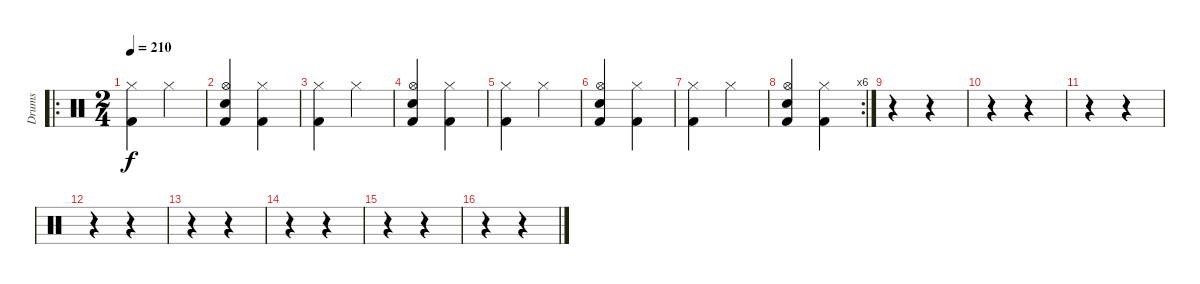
\track ("Drums" "Drums") {instrument percussion}
\staff {score}
\articulation defaults
\ro
\ts (2 4)
\tempo 210
\clef neutral
\ks c
("Hi-Hat (closed)" "Kick (hit) 2").4{dy f} "Hi-Hat (closed)".4 |
("Hi-Hat (open)" "Electric Snare (hit)" "Kick (hit) 2").4 ("Hi-Hat (closed)" "Kick (hit) 2").4 |
("Hi-Hat (closed)" "Kick (hit) 2").4 "Hi-Hat (closed)".4 |
("Hi-Hat (open)" "Electric Snare (hit)" "Kick (hit) 2").4 ("Hi-Hat (closed)" "Kick (hit) 2").4 |
("Hi-Hat (closed)" "Kick (hit) 2").4 "Hi-Hat (closed)".4 |
("Hi-Hat (open)" "Electric Snare (hit)" "Kick (hit) 2").4 ("Hi-Hat (closed)" "Kick (hit) 2").4 |
("Hi-Hat (closed)" "Kick (hit) 2").4 "Hi-Hat (closed)".4 |
\rc 6
("Hi-Hat (open)" "Electric Snare (hit)" "Kick (hit) 2").4 ("Hi-Hat (closed)" "Kick (hit) 2").4 |
r.4 r.4 |
r.4 r.4 |
r.4 r.4 |
r.4 r.4 |
r.4 r.4 |
r.4 r.4 |
r.4 r.4 |
r.4 r.4
